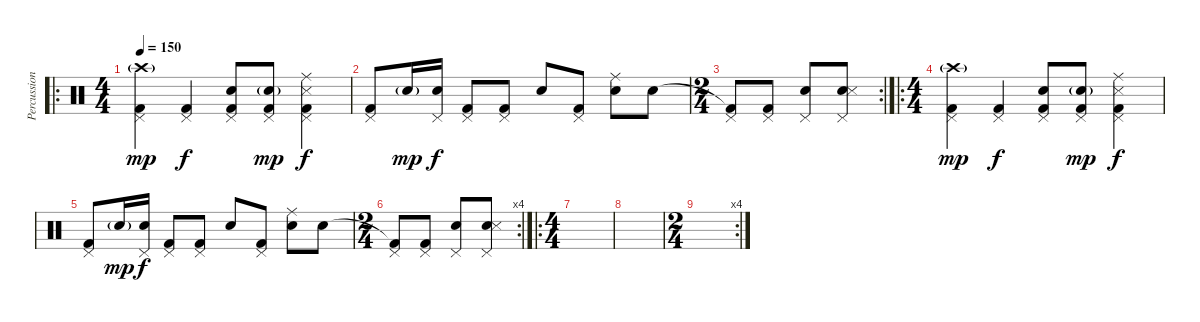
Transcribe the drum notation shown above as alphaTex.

\track ("Percussions" "Percussion") {instrument percussion}
\staff {score}
\articulation defaults
\ro
\ts (4 4)
\tempo 150
\clef neutral
\ks c
("Kick (hit) 2" "Pedal Hi-Hat (hit)" "Crash high (hit)"{g}).4{dy mp} ("Kick (hit) 2" "Pedal Hi-Hat (hit)").4{dy f} ("Kick (hit) 2" "Pedal Hi-Hat (hit)" "Snare (hit) 2").8 ("Kick (hit) 2" "Pedal Hi-Hat (hit)" "Snare (hit) 2"{g}).8{dy mp} ("Kick (hit) 2" "Pedal Hi-Hat (hit)" "Snare (side stick) 3" "Ride (middle)").4{dy f} |
("Kick (hit) 2" "Pedal Hi-Hat (hit)").8 "Snare (hit) 2"{g}.16{dy mp} ("Pedal Hi-Hat (hit)" "Snare (hit) 2").16{dy f} ("Kick (hit) 2" "Pedal Hi-Hat (hit)").8 ("Kick (hit) 2" "Pedal Hi-Hat (hit)").8 "Snare (hit) 2".8 ("Kick (hit) 2" "Pedal Hi-Hat (hit)").8 ("Snare (hit) 2" "Ride (middle)").8 "Snare (hit) 2".8 |
\rc 2
\ts (2 4)
("Kick (hit) 2"{t} "Pedal Hi-Hat (hit)").8 ("Kick (hit) 2" "Pedal Hi-Hat (hit)").8 ("Pedal Hi-Hat (hit)" "Snare (hit) 2").8 ("Pedal Hi-Hat (hit)" "Snare (hit) 2" "Snare (side stick) 3").8 |
\ro
\ts (4 4)
("Kick (hit) 2" "Pedal Hi-Hat (hit)" "Crash high (hit)"{g}).4{dy mp} ("Kick (hit) 2" "Pedal Hi-Hat (hit)").4{dy f} ("Kick (hit) 2" "Pedal Hi-Hat (hit)" "Snare (hit) 2").8 ("Kick (hit) 2" "Pedal Hi-Hat (hit)" "Snare (hit) 2"{g}).8{dy mp} ("Kick (hit) 2" "Pedal Hi-Hat (hit)" "Snare (side stick) 3" "Ride (middle)").4{dy f} |
("Kick (hit) 2" "Pedal Hi-Hat (hit)").8 "Snare (hit) 2"{g}.16{dy mp} ("Pedal Hi-Hat (hit)" "Snare (hit) 2").16{dy f} ("Kick (hit) 2" "Pedal Hi-Hat (hit)").8 ("Kick (hit) 2" "Pedal Hi-Hat (hit)").8 "Snare (hit) 2".8 ("Kick (hit) 2" "Pedal Hi-Hat (hit)").8 ("Snare (hit) 2" "Ride (middle)").8 "Snare (hit) 2".8 |
\rc 4
\ts (2 4)
("Kick (hit) 2"{t} "Pedal Hi-Hat (hit)").8 ("Kick (hit) 2" "Pedal Hi-Hat (hit)").8 ("Pedal Hi-Hat (hit)" "Snare (hit) 2").8 ("Pedal Hi-Hat (hit)" "Snare (hit) 2" "Snare (side stick) 3").8 |
\ro
\ts (4 4)
|
|
\rc 4
\ts (2 4)
